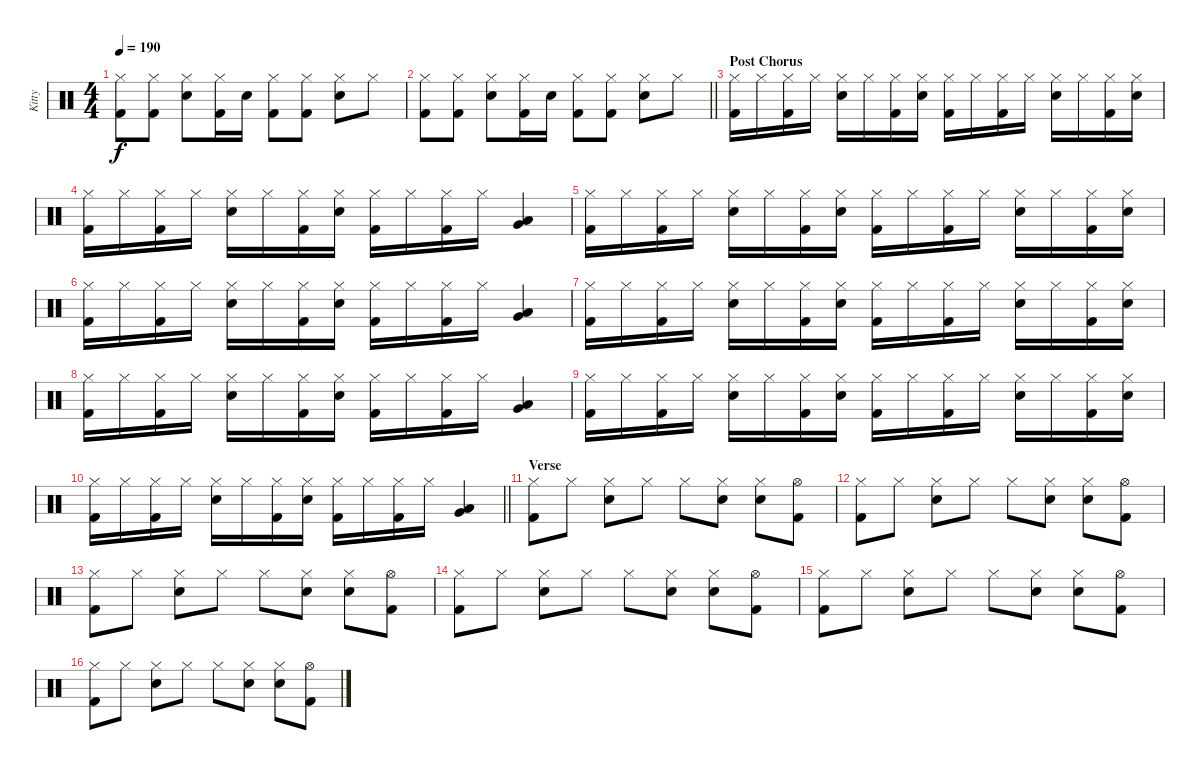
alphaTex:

\track ("Kitty" "Kitty") {instrument percussion}
\staff {score}
\articulation defaults
\ts (4 4)
\tempo 190
\clef neutral
\ks c
("Hi-Hat (closed)" "Kick (hit) 2").8{dy f} ("Hi-Hat (closed)" "Kick (hit) 2").8 ("Hi-Hat (closed)" "Snare (hit) 2").8 ("Hi-Hat (closed)" "Kick (hit) 2").16 "Snare (hit) 2".16 ("Hi-Hat (closed)" "Kick (hit) 2").8 ("Hi-Hat (closed)" "Kick (hit) 2").8 ("Hi-Hat (closed)" "Snare (hit) 2").8 "Hi-Hat (closed)".8 |
\barLineRight lightlight
("Hi-Hat (closed)" "Kick (hit) 2").8 ("Hi-Hat (closed)" "Kick (hit) 2").8 ("Hi-Hat (closed)" "Snare (hit) 2").8 ("Hi-Hat (closed)" "Kick (hit) 2").16 "Snare (hit) 2".16 ("Hi-Hat (closed)" "Kick (hit) 2").8 ("Hi-Hat (closed)" "Kick (hit) 2").8 ("Hi-Hat (closed)" "Snare (hit) 2").8 "Hi-Hat (closed)".8 |
\section ("" "Post Chorus")
("Hi-Hat (closed)" "Kick (hit) 2").16 "Hi-Hat (closed)".16 ("Hi-Hat (closed)" "Kick (hit) 2").16 "Hi-Hat (closed)".16 ("Hi-Hat (closed)" "Snare (hit) 2").16 "Hi-Hat (closed)".16 ("Hi-Hat (closed)" "Kick (hit) 2").16 ("Hi-Hat (closed)" "Snare (hit) 2").16 ("Hi-Hat (closed)" "Kick (hit) 2").16 "Hi-Hat (closed)".16 ("Hi-Hat (closed)" "Kick (hit) 2").16 "Hi-Hat (closed)".16 ("Hi-Hat (closed)" "Snare (hit) 2").16 "Hi-Hat (closed)".16 ("Hi-Hat (closed)" "Kick (hit) 2").16 ("Hi-Hat (closed)" "Snare (hit) 2").16 |
("Hi-Hat (closed)" "Kick (hit) 2").16 "Hi-Hat (closed)".16 ("Hi-Hat (closed)" "Kick (hit) 2").16 "Hi-Hat (closed)".16 ("Hi-Hat (closed)" "Snare (hit) 2").16 "Hi-Hat (closed)".16 ("Hi-Hat (closed)" "Kick (hit) 2").16 ("Hi-Hat (closed)" "Snare (hit) 2").16 ("Hi-Hat (closed)" "Kick (hit) 2").16 "Hi-Hat (closed)".16 ("Hi-Hat (closed)" "Kick (hit) 2").16 "Hi-Hat (closed)".16 ("Very Low Tom (hit)" "Low Floor Tom (hit)").4 |
("Hi-Hat (closed)" "Kick (hit) 2").16 "Hi-Hat (closed)".16 ("Hi-Hat (closed)" "Kick (hit) 2").16 "Hi-Hat (closed)".16 ("Hi-Hat (closed)" "Snare (hit) 2").16 "Hi-Hat (closed)".16 ("Hi-Hat (closed)" "Kick (hit) 2").16 ("Hi-Hat (closed)" "Snare (hit) 2").16 ("Hi-Hat (closed)" "Kick (hit) 2").16 "Hi-Hat (closed)".16 ("Hi-Hat (closed)" "Kick (hit) 2").16 "Hi-Hat (closed)".16 ("Hi-Hat (closed)" "Snare (hit) 2").16 "Hi-Hat (closed)".16 ("Hi-Hat (closed)" "Kick (hit) 2").16 ("Hi-Hat (closed)" "Snare (hit) 2").16 |
("Hi-Hat (closed)" "Kick (hit) 2").16 "Hi-Hat (closed)".16 ("Hi-Hat (closed)" "Kick (hit) 2").16 "Hi-Hat (closed)".16 ("Hi-Hat (closed)" "Snare (hit) 2").16 "Hi-Hat (closed)".16 ("Hi-Hat (closed)" "Kick (hit) 2").16 ("Hi-Hat (closed)" "Snare (hit) 2").16 ("Hi-Hat (closed)" "Kick (hit) 2").16 "Hi-Hat (closed)".16 ("Hi-Hat (closed)" "Kick (hit) 2").16 "Hi-Hat (closed)".16 ("Very Low Tom (hit)" "Low Floor Tom (hit)").4 |
("Hi-Hat (closed)" "Kick (hit) 2").16 "Hi-Hat (closed)".16 ("Hi-Hat (closed)" "Kick (hit) 2").16 "Hi-Hat (closed)".16 ("Hi-Hat (closed)" "Snare (hit) 2").16 "Hi-Hat (closed)".16 ("Hi-Hat (closed)" "Kick (hit) 2").16 ("Hi-Hat (closed)" "Snare (hit) 2").16 ("Hi-Hat (closed)" "Kick (hit) 2").16 "Hi-Hat (closed)".16 ("Hi-Hat (closed)" "Kick (hit) 2").16 "Hi-Hat (closed)".16 ("Hi-Hat (closed)" "Snare (hit) 2").16 "Hi-Hat (closed)".16 ("Hi-Hat (closed)" "Kick (hit) 2").16 ("Hi-Hat (closed)" "Snare (hit) 2").16 |
("Hi-Hat (closed)" "Kick (hit) 2").16 "Hi-Hat (closed)".16 ("Hi-Hat (closed)" "Kick (hit) 2").16 "Hi-Hat (closed)".16 ("Hi-Hat (closed)" "Snare (hit) 2").16 "Hi-Hat (closed)".16 ("Hi-Hat (closed)" "Kick (hit) 2").16 ("Hi-Hat (closed)" "Snare (hit) 2").16 ("Hi-Hat (closed)" "Kick (hit) 2").16 "Hi-Hat (closed)".16 ("Hi-Hat (closed)" "Kick (hit) 2").16 "Hi-Hat (closed)".16 ("Very Low Tom (hit)" "Low Floor Tom (hit)").4 |
("Hi-Hat (closed)" "Kick (hit) 2").16 "Hi-Hat (closed)".16 ("Hi-Hat (closed)" "Kick (hit) 2").16 "Hi-Hat (closed)".16 ("Hi-Hat (closed)" "Snare (hit) 2").16 "Hi-Hat (closed)".16 ("Hi-Hat (closed)" "Kick (hit) 2").16 ("Hi-Hat (closed)" "Snare (hit) 2").16 ("Hi-Hat (closed)" "Kick (hit) 2").16 "Hi-Hat (closed)".16 ("Hi-Hat (closed)" "Kick (hit) 2").16 "Hi-Hat (closed)".16 ("Hi-Hat (closed)" "Snare (hit) 2").16 "Hi-Hat (closed)".16 ("Hi-Hat (closed)" "Kick (hit) 2").16 ("Hi-Hat (closed)" "Snare (hit) 2").16 |
\barLineRight lightlight
("Hi-Hat (closed)" "Kick (hit) 2").16 "Hi-Hat (closed)".16 ("Hi-Hat (closed)" "Kick (hit) 2").16 "Hi-Hat (closed)".16 ("Hi-Hat (closed)" "Snare (hit) 2").16 "Hi-Hat (closed)".16 ("Hi-Hat (closed)" "Kick (hit) 2").16 ("Hi-Hat (closed)" "Snare (hit) 2").16 ("Hi-Hat (closed)" "Kick (hit) 2").16 "Hi-Hat (closed)".16 ("Hi-Hat (closed)" "Kick (hit) 2").16 "Hi-Hat (closed)".16 ("Very Low Tom (hit)" "Low Floor Tom (hit)").4 |
\section ("" "Verse")
("Hi-Hat (closed)" "Kick (hit) 2").8 "Hi-Hat (closed)".8 ("Hi-Hat (closed)" "Snare (hit) 2").8 "Hi-Hat (closed)".8 "Hi-Hat (closed)".8 ("Hi-Hat (closed)" "Snare (hit) 2").8 ("Hi-Hat (closed)" "Snare (hit) 2").8 ("Hi-Hat (open)" "Kick (hit) 2").8 |
("Hi-Hat (closed)" "Kick (hit) 2").8 "Hi-Hat (closed)".8 ("Hi-Hat (closed)" "Snare (hit) 2").8 "Hi-Hat (closed)".8 "Hi-Hat (closed)".8 ("Hi-Hat (closed)" "Snare (hit) 2").8 ("Hi-Hat (closed)" "Snare (hit) 2").8 ("Hi-Hat (open)" "Kick (hit) 2").8 |
("Hi-Hat (closed)" "Kick (hit) 2").8 "Hi-Hat (closed)".8 ("Hi-Hat (closed)" "Snare (hit) 2").8 "Hi-Hat (closed)".8 "Hi-Hat (closed)".8 ("Hi-Hat (closed)" "Snare (hit) 2").8 ("Hi-Hat (closed)" "Snare (hit) 2").8 ("Hi-Hat (open)" "Kick (hit) 2").8 |
("Hi-Hat (closed)" "Kick (hit) 2").8 "Hi-Hat (closed)".8 ("Hi-Hat (closed)" "Snare (hit) 2").8 "Hi-Hat (closed)".8 "Hi-Hat (closed)".8 ("Hi-Hat (closed)" "Snare (hit) 2").8 ("Hi-Hat (closed)" "Snare (hit) 2").8 ("Hi-Hat (open)" "Kick (hit) 2").8 |
("Hi-Hat (closed)" "Kick (hit) 2").8 "Hi-Hat (closed)".8 ("Hi-Hat (closed)" "Snare (hit) 2").8 "Hi-Hat (closed)".8 "Hi-Hat (closed)".8 ("Hi-Hat (closed)" "Snare (hit) 2").8 ("Hi-Hat (closed)" "Snare (hit) 2").8 ("Hi-Hat (open)" "Kick (hit) 2").8 |
("Hi-Hat (closed)" "Kick (hit) 2").8 "Hi-Hat (closed)".8 ("Hi-Hat (closed)" "Snare (hit) 2").8 "Hi-Hat (closed)".8 "Hi-Hat (closed)".8 ("Hi-Hat (closed)" "Snare (hit) 2").8 ("Hi-Hat (closed)" "Snare (hit) 2").8 ("Hi-Hat (open)" "Kick (hit) 2").8
